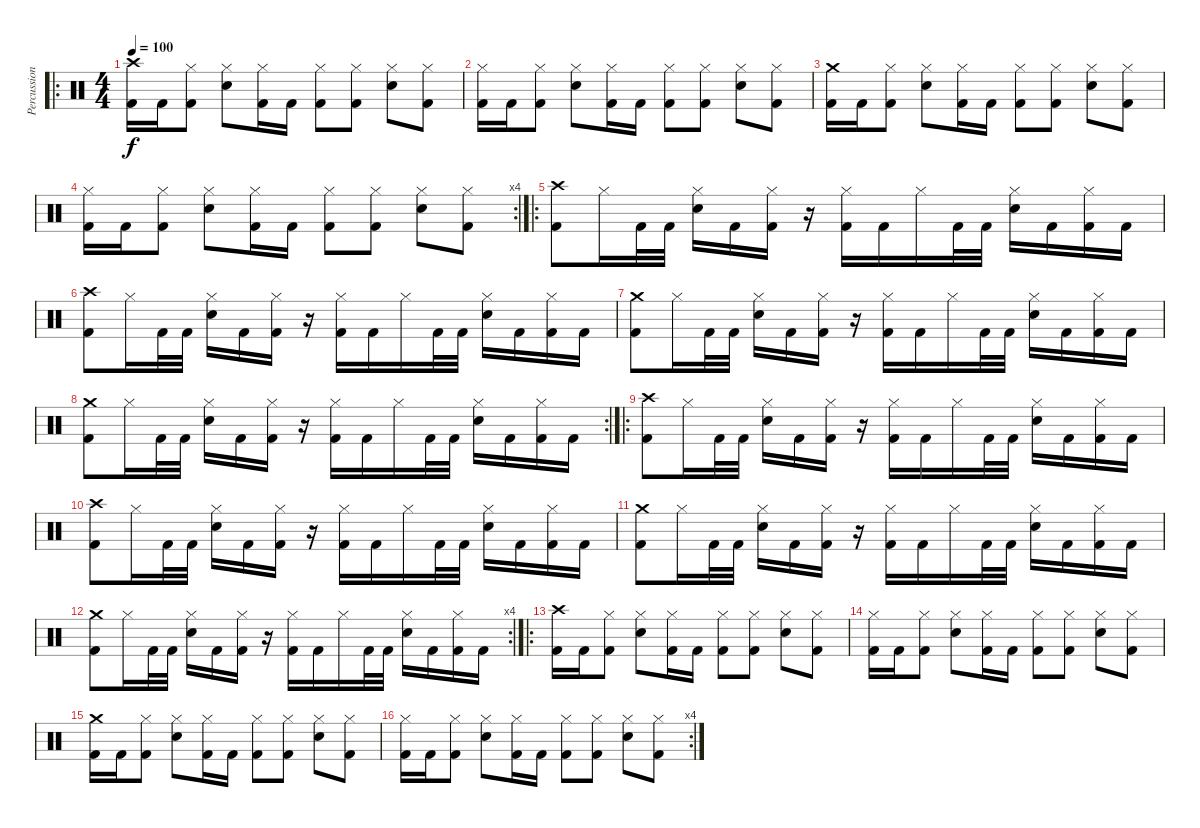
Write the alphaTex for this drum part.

\track ("Percussion" "Percussion") {instrument percussion}
\staff {score}
\articulation defaults
\ro
\ts (4 4)
\tempo 100
\clef neutral
\ks c
("Crash high (hit)" "Kick (hit) 2").16{dy f} "Kick (hit) 2".16 ("Hi-Hat (closed)" "Kick (hit) 2").8 ("Hi-Hat (closed)" "Electric Snare (hit)").8 ("Hi-Hat (closed)" "Kick (hit) 2").16 "Kick (hit) 2".16 ("Hi-Hat (closed)" "Kick (hit) 2").8 ("Hi-Hat (closed)" "Kick (hit) 2").8 ("Hi-Hat (closed)" "Electric Snare (hit)").8 ("Hi-Hat (closed)" "Kick (hit) 2").8 |
("Hi-Hat (closed)" "Kick (hit) 2").16 "Kick (hit) 2".16 ("Hi-Hat (closed)" "Kick (hit) 2").8 ("Hi-Hat (closed)" "Electric Snare (hit)").8 ("Hi-Hat (closed)" "Kick (hit) 2").16 "Kick (hit) 2".16 ("Hi-Hat (closed)" "Kick (hit) 2").8 ("Hi-Hat (closed)" "Kick (hit) 2").8 ("Hi-Hat (closed)" "Electric Snare (hit)").8 ("Hi-Hat (closed)" "Kick (hit) 2").8 |
("Crash medium (hit)" "Kick (hit) 2").16 "Kick (hit) 2".16 ("Hi-Hat (closed)" "Kick (hit) 2").8 ("Hi-Hat (closed)" "Electric Snare (hit)").8 ("Hi-Hat (closed)" "Kick (hit) 2").16 "Kick (hit) 2".16 ("Hi-Hat (closed)" "Kick (hit) 2").8 ("Hi-Hat (closed)" "Kick (hit) 2").8 ("Hi-Hat (closed)" "Electric Snare (hit)").8 ("Hi-Hat (closed)" "Kick (hit) 2").8 |
\rc 4
("Hi-Hat (closed)" "Kick (hit) 2").16 "Kick (hit) 2".16 ("Hi-Hat (closed)" "Kick (hit) 2").8 ("Hi-Hat (closed)" "Electric Snare (hit)").8 ("Hi-Hat (closed)" "Kick (hit) 2").16 "Kick (hit) 2".16 ("Hi-Hat (closed)" "Kick (hit) 2").8 ("Hi-Hat (closed)" "Kick (hit) 2").8 ("Hi-Hat (closed)" "Electric Snare (hit)").8 ("Hi-Hat (closed)" "Kick (hit) 2").8 |
\ro
("Crash high (hit)" "Kick (hit) 2").8 "Hi-Hat (closed)".16 "Kick (hit) 2".32 "Kick (hit) 2".32 ("Hi-Hat (closed)" "Electric Snare (hit)").16 "Kick (hit) 2".16 ("Hi-Hat (closed)" "Kick (hit) 2").16 r.16 ("Hi-Hat (closed)" "Kick (hit) 2").16 "Kick (hit) 2".16 "Hi-Hat (closed)".16 "Kick (hit) 2".32 "Kick (hit) 2".32 ("Hi-Hat (closed)" "Electric Snare (hit)").16 "Kick (hit) 2".16 ("Hi-Hat (closed)" "Kick (hit) 2").16 "Kick (hit) 2".16 |
("Crash high (hit)" "Kick (hit) 2").8 "Hi-Hat (closed)".16 "Kick (hit) 2".32 "Kick (hit) 2".32 ("Hi-Hat (closed)" "Electric Snare (hit)").16 "Kick (hit) 2".16 ("Hi-Hat (closed)" "Kick (hit) 2").16 r.16 ("Hi-Hat (closed)" "Kick (hit) 2").16 "Kick (hit) 2".16 "Hi-Hat (closed)".16 "Kick (hit) 2".32 "Kick (hit) 2".32 ("Hi-Hat (closed)" "Electric Snare (hit)").16 "Kick (hit) 2".16 ("Hi-Hat (closed)" "Kick (hit) 2").16 "Kick (hit) 2".16 |
("Crash medium (hit)" "Kick (hit) 2").8 "Hi-Hat (closed)".16 "Kick (hit) 2".32 "Kick (hit) 2".32 ("Hi-Hat (closed)" "Electric Snare (hit)").16 "Kick (hit) 2".16 ("Hi-Hat (closed)" "Kick (hit) 2").16 r.16 ("Hi-Hat (closed)" "Kick (hit) 2").16 "Kick (hit) 2".16 "Hi-Hat (closed)".16 "Kick (hit) 2".32 "Kick (hit) 2".32 ("Hi-Hat (closed)" "Electric Snare (hit)").16 "Kick (hit) 2".16 ("Hi-Hat (closed)" "Kick (hit) 2").16 "Kick (hit) 2".16 |
\rc 2
("Crash medium (hit)" "Kick (hit) 2").8 "Hi-Hat (closed)".16 "Kick (hit) 2".32 "Kick (hit) 2".32 ("Hi-Hat (closed)" "Electric Snare (hit)").16 "Kick (hit) 2".16 ("Hi-Hat (closed)" "Kick (hit) 2").16 r.16 ("Hi-Hat (closed)" "Kick (hit) 2").16 "Kick (hit) 2".16 "Hi-Hat (closed)".16 "Kick (hit) 2".32 "Kick (hit) 2".32 ("Hi-Hat (closed)" "Electric Snare (hit)").16 "Kick (hit) 2".16 ("Hi-Hat (closed)" "Kick (hit) 2").16 "Kick (hit) 2".16 |
\ro
("Crash high (hit)" "Kick (hit) 2").8 "Hi-Hat (closed)".16 "Kick (hit) 2".32 "Kick (hit) 2".32 ("Hi-Hat (closed)" "Electric Snare (hit)").16 "Kick (hit) 2".16 ("Hi-Hat (closed)" "Kick (hit) 2").16 r.16 ("Hi-Hat (closed)" "Kick (hit) 2").16 "Kick (hit) 2".16 "Hi-Hat (closed)".16 "Kick (hit) 2".32 "Kick (hit) 2".32 ("Hi-Hat (closed)" "Electric Snare (hit)").16 "Kick (hit) 2".16 ("Hi-Hat (closed)" "Kick (hit) 2").16 "Kick (hit) 2".16 |
("Crash high (hit)" "Kick (hit) 2").8 "Hi-Hat (closed)".16 "Kick (hit) 2".32 "Kick (hit) 2".32 ("Hi-Hat (closed)" "Electric Snare (hit)").16 "Kick (hit) 2".16 ("Hi-Hat (closed)" "Kick (hit) 2").16 r.16 ("Hi-Hat (closed)" "Kick (hit) 2").16 "Kick (hit) 2".16 "Hi-Hat (closed)".16 "Kick (hit) 2".32 "Kick (hit) 2".32 ("Hi-Hat (closed)" "Electric Snare (hit)").16 "Kick (hit) 2".16 ("Hi-Hat (closed)" "Kick (hit) 2").16 "Kick (hit) 2".16 |
("Crash medium (hit)" "Kick (hit) 2").8 "Hi-Hat (closed)".16 "Kick (hit) 2".32 "Kick (hit) 2".32 ("Hi-Hat (closed)" "Electric Snare (hit)").16 "Kick (hit) 2".16 ("Hi-Hat (closed)" "Kick (hit) 2").16 r.16 ("Hi-Hat (closed)" "Kick (hit) 2").16 "Kick (hit) 2".16 "Hi-Hat (closed)".16 "Kick (hit) 2".32 "Kick (hit) 2".32 ("Hi-Hat (closed)" "Electric Snare (hit)").16 "Kick (hit) 2".16 ("Hi-Hat (closed)" "Kick (hit) 2").16 "Kick (hit) 2".16 |
\rc 4
("Crash medium (hit)" "Kick (hit) 2").8 "Hi-Hat (closed)".16 "Kick (hit) 2".32 "Kick (hit) 2".32 ("Hi-Hat (closed)" "Electric Snare (hit)").16 "Kick (hit) 2".16 ("Hi-Hat (closed)" "Kick (hit) 2").16 r.16 ("Hi-Hat (closed)" "Kick (hit) 2").16 "Kick (hit) 2".16 "Hi-Hat (closed)".16 "Kick (hit) 2".32 "Kick (hit) 2".32 ("Hi-Hat (closed)" "Electric Snare (hit)").16 "Kick (hit) 2".16 ("Hi-Hat (closed)" "Kick (hit) 2").16 "Kick (hit) 2".16 |
\ro
("Crash high (hit)" "Kick (hit) 2").16 "Kick (hit) 2".16 ("Hi-Hat (closed)" "Kick (hit) 2").8 ("Hi-Hat (closed)" "Electric Snare (hit)").8 ("Hi-Hat (closed)" "Kick (hit) 2").16 "Kick (hit) 2".16 ("Hi-Hat (closed)" "Kick (hit) 2").8 ("Hi-Hat (closed)" "Kick (hit) 2").8 ("Hi-Hat (closed)" "Electric Snare (hit)").8 ("Hi-Hat (closed)" "Kick (hit) 2").8 |
("Hi-Hat (closed)" "Kick (hit) 2").16 "Kick (hit) 2".16 ("Hi-Hat (closed)" "Kick (hit) 2").8 ("Hi-Hat (closed)" "Electric Snare (hit)").8 ("Hi-Hat (closed)" "Kick (hit) 2").16 "Kick (hit) 2".16 ("Hi-Hat (closed)" "Kick (hit) 2").8 ("Hi-Hat (closed)" "Kick (hit) 2").8 ("Hi-Hat (closed)" "Electric Snare (hit)").8 ("Hi-Hat (closed)" "Kick (hit) 2").8 |
("Crash medium (hit)" "Kick (hit) 2").16 "Kick (hit) 2".16 ("Hi-Hat (closed)" "Kick (hit) 2").8 ("Hi-Hat (closed)" "Electric Snare (hit)").8 ("Hi-Hat (closed)" "Kick (hit) 2").16 "Kick (hit) 2".16 ("Hi-Hat (closed)" "Kick (hit) 2").8 ("Hi-Hat (closed)" "Kick (hit) 2").8 ("Hi-Hat (closed)" "Electric Snare (hit)").8 ("Hi-Hat (closed)" "Kick (hit) 2").8 |
\rc 4
("Hi-Hat (closed)" "Kick (hit) 2").16 "Kick (hit) 2".16 ("Hi-Hat (closed)" "Kick (hit) 2").8 ("Hi-Hat (closed)" "Electric Snare (hit)").8 ("Hi-Hat (closed)" "Kick (hit) 2").16 "Kick (hit) 2".16 ("Hi-Hat (closed)" "Kick (hit) 2").8 ("Hi-Hat (closed)" "Kick (hit) 2").8 ("Hi-Hat (closed)" "Electric Snare (hit)").8 ("Hi-Hat (closed)" "Kick (hit) 2").8
